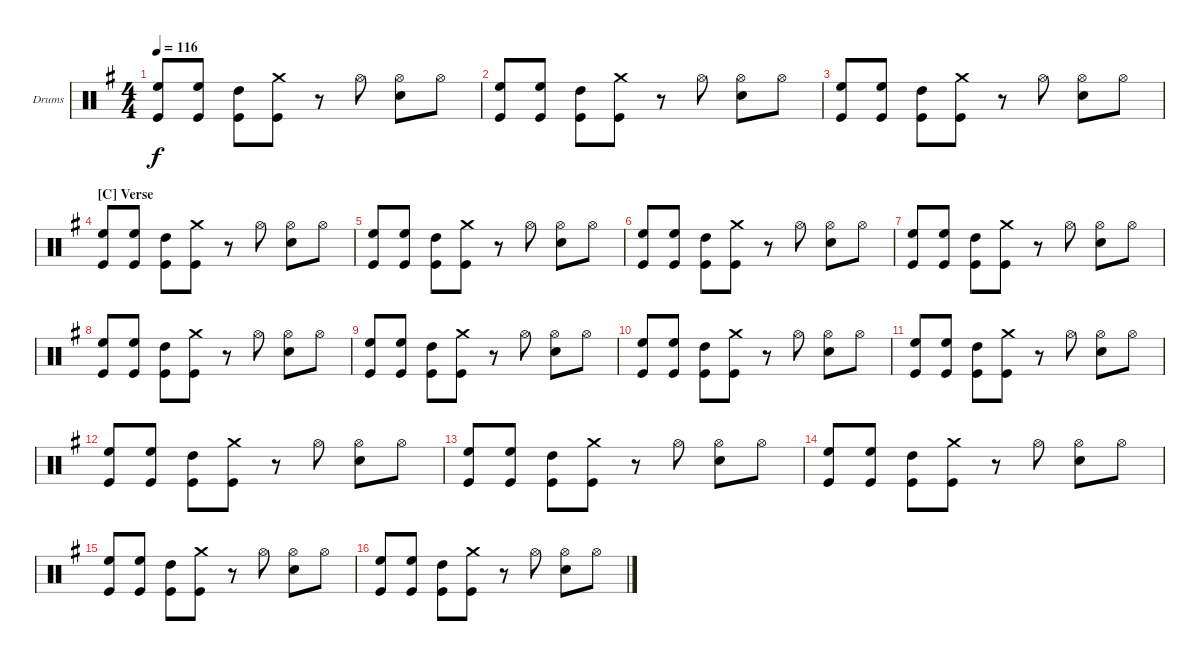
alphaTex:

\defaultSystemsLayout 4
\bracketExtendMode groupsimilarinstruments
\firstSystemTrackNameOrientation horizontal
\otherSystemsTrackNameOrientation horizontal
\track ("Drumkit" "Drums") {instrument percussion}
\staff {score}
\articulation defaults
\ts (4 4)
\tempo 116
\clef neutral
\scale
1.02648
\ks g
("High Floor Tom (hit)" "Kick (hit)").8{dy f} ("High Floor Tom (hit)" "Kick (hit)").8 ("High Tom (hit)" "Kick (hit)").8 ("Crash medium (hit)" "Kick (hit)").8 r.8 "Hi-Hat (open)".8 ("Hi-Hat (open)" "Snare (hit) 2").8 "Hi-Hat (open)".8 |
\scale
0.973518 ("High Floor Tom (hit)" "Kick (hit)").8 ("High Floor Tom (hit)" "Kick (hit)").8 ("High Tom (hit)" "Kick (hit)").8 ("Crash medium (hit)" "Kick (hit)").8 r.8 "Hi-Hat (open)".8 ("Hi-Hat (open)" "Snare (hit) 2").8 "Hi-Hat (open)".8 |
\scale
1.02648 ("High Floor Tom (hit)" "Kick (hit)").8 ("High Floor Tom (hit)" "Kick (hit)").8 ("High Tom (hit)" "Kick (hit)").8 ("Crash medium (hit)" "Kick (hit)").8 r.8 "Hi-Hat (open)".8 ("Hi-Hat (open)" "Snare (hit) 2").8 "Hi-Hat (open)".8 |
\section ("C" "Verse")
\scale
0.973518 ("High Floor Tom (hit)" "Kick (hit)").8 ("High Floor Tom (hit)" "Kick (hit)").8 ("High Tom (hit)" "Kick (hit)").8 ("Crash medium (hit)" "Kick (hit)").8 r.8 "Hi-Hat (open)".8 ("Hi-Hat (open)" "Snare (hit) 2").8 "Hi-Hat (open)".8 |
\scale
1.02648 ("High Floor Tom (hit)" "Kick (hit)").8 ("High Floor Tom (hit)" "Kick (hit)").8 ("High Tom (hit)" "Kick (hit)").8 ("Crash medium (hit)" "Kick (hit)").8 r.8 "Hi-Hat (open)".8 ("Hi-Hat (open)" "Snare (hit) 2").8 "Hi-Hat (open)".8 |
\scale
0.973518 ("High Floor Tom (hit)" "Kick (hit)").8 ("High Floor Tom (hit)" "Kick (hit)").8 ("High Tom (hit)" "Kick (hit)").8 ("Crash medium (hit)" "Kick (hit)").8 r.8 "Hi-Hat (open)".8 ("Hi-Hat (open)" "Snare (hit) 2").8 "Hi-Hat (open)".8 |
\scale
1.02648 ("High Floor Tom (hit)" "Kick (hit)").8 ("High Floor Tom (hit)" "Kick (hit)").8 ("High Tom (hit)" "Kick (hit)").8 ("Crash medium (hit)" "Kick (hit)").8 r.8 "Hi-Hat (open)".8 ("Hi-Hat (open)" "Snare (hit) 2").8 "Hi-Hat (open)".8 |
\scale
0.973518 ("High Floor Tom (hit)" "Kick (hit)").8 ("High Floor Tom (hit)" "Kick (hit)").8 ("High Tom (hit)" "Kick (hit)").8 ("Crash medium (hit)" "Kick (hit)").8 r.8 "Hi-Hat (open)".8 ("Hi-Hat (open)" "Snare (hit) 2").8 "Hi-Hat (open)".8 |
\scale
1.02648 ("High Floor Tom (hit)" "Kick (hit)").8 ("High Floor Tom (hit)" "Kick (hit)").8 ("High Tom (hit)" "Kick (hit)").8 ("Crash medium (hit)" "Kick (hit)").8 r.8 "Hi-Hat (open)".8 ("Hi-Hat (open)" "Snare (hit) 2").8 "Hi-Hat (open)".8 |
\scale
0.973518 ("High Floor Tom (hit)" "Kick (hit)").8 ("High Floor Tom (hit)" "Kick (hit)").8 ("High Tom (hit)" "Kick (hit)").8 ("Crash medium (hit)" "Kick (hit)").8 r.8 "Hi-Hat (open)".8 ("Hi-Hat (open)" "Snare (hit) 2").8 "Hi-Hat (open)".8 |
\scale
1.02648 ("High Floor Tom (hit)" "Kick (hit)").8 ("High Floor Tom (hit)" "Kick (hit)").8 ("High Tom (hit)" "Kick (hit)").8 ("Crash medium (hit)" "Kick (hit)").8 r.8 "Hi-Hat (open)".8 ("Hi-Hat (open)" "Snare (hit) 2").8 "Hi-Hat (open)".8 |
\scale
0.973518 ("High Floor Tom (hit)" "Kick (hit)").8 ("High Floor Tom (hit)" "Kick (hit)").8 ("High Tom (hit)" "Kick (hit)").8 ("Crash medium (hit)" "Kick (hit)").8 r.8 "Hi-Hat (open)".8 ("Hi-Hat (open)" "Snare (hit) 2").8 "Hi-Hat (open)".8 |
\scale
1.02648 ("High Floor Tom (hit)" "Kick (hit)").8 ("High Floor Tom (hit)" "Kick (hit)").8 ("High Tom (hit)" "Kick (hit)").8 ("Crash medium (hit)" "Kick (hit)").8 r.8 "Hi-Hat (open)".8 ("Hi-Hat (open)" "Snare (hit) 2").8 "Hi-Hat (open)".8 |
\scale
0.973518 ("High Floor Tom (hit)" "Kick (hit)").8 ("High Floor Tom (hit)" "Kick (hit)").8 ("High Tom (hit)" "Kick (hit)").8 ("Crash medium (hit)" "Kick (hit)").8 r.8 "Hi-Hat (open)".8 ("Hi-Hat (open)" "Snare (hit) 2").8 "Hi-Hat (open)".8 |
\scale
1.02648 ("High Floor Tom (hit)" "Kick (hit)").8 ("High Floor Tom (hit)" "Kick (hit)").8 ("High Tom (hit)" "Kick (hit)").8 ("Crash medium (hit)" "Kick (hit)").8 r.8 "Hi-Hat (open)".8 ("Hi-Hat (open)" "Snare (hit) 2").8 "Hi-Hat (open)".8 |
\scale
0.973518 ("High Floor Tom (hit)" "Kick (hit)").8 ("High Floor Tom (hit)" "Kick (hit)").8 ("High Tom (hit)" "Kick (hit)").8 ("Crash medium (hit)" "Kick (hit)").8 r.8 "Hi-Hat (open)".8 ("Hi-Hat (open)" "Snare (hit) 2").8 "Hi-Hat (open)".8
